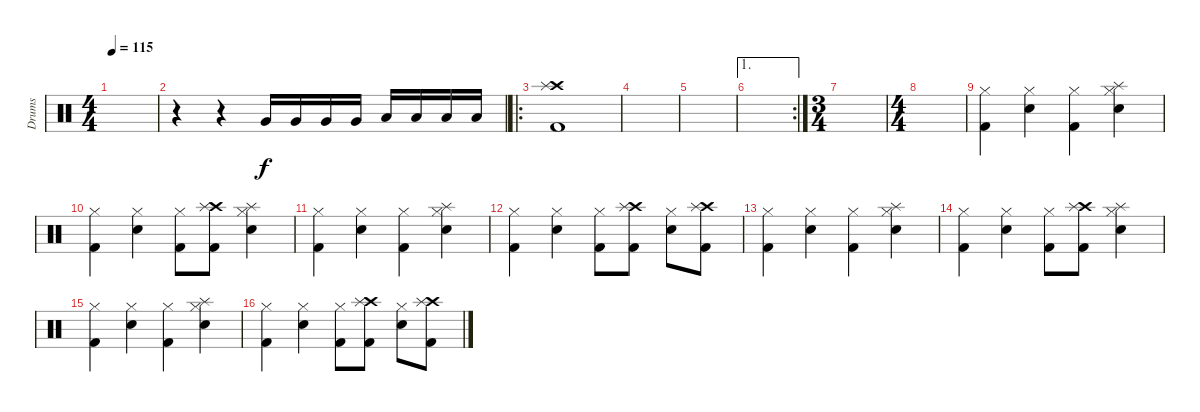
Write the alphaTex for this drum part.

\track ("Drums" "Drums") {instrument percussion}
\staff {score}
\articulation defaults
\ts (4 4)
\tempo 115
\clef neutral
\ks c
|
r.4 r.4 "Very Low Tom (hit)".16 "Very Low Tom (hit)".16 "Very Low Tom (hit)".16 "Very Low Tom (hit)".16 "Low Floor Tom (hit)".16 "Low Floor Tom (hit)".16 "Low Floor Tom (hit)".16 "Low Floor Tom (hit)".16 |
\ro
("Crash high (hit)" "Splash (hit)" "Kick (hit) 2").1 |
|
|
\ae 1
\rc 2
|
\ts (3 4)
|
\ts (4 4)
|
("Hi-Hat (closed)" "Kick (hit) 2").4 ("Hi-Hat (closed)" "Snare (hit) 2").4 ("Hi-Hat (closed)" "Kick (hit) 2").4 ("Hi-Hat (closed)" "Snare (hit) 2" "Splash (hit)").4 |
("Hi-Hat (closed)" "Kick (hit) 2").4 ("Hi-Hat (closed)" "Snare (hit) 2").4 ("Hi-Hat (closed)" "Kick (hit) 2").8 ("Crash high (hit)" "Splash (hit)" "Kick (hit) 2").8 ("Hi-Hat (closed)" "Snare (hit) 2" "Splash (hit)").4 |
("Hi-Hat (closed)" "Kick (hit) 2").4 ("Hi-Hat (closed)" "Snare (hit) 2").4 ("Hi-Hat (closed)" "Kick (hit) 2").4 ("Hi-Hat (closed)" "Snare (hit) 2" "Splash (hit)").4 |
("Hi-Hat (closed)" "Kick (hit) 2").4 ("Hi-Hat (closed)" "Snare (hit) 2").4 ("Hi-Hat (closed)" "Kick (hit) 2").8 ("Crash high (hit)" "Splash (hit)" "Kick (hit) 2").8 ("Hi-Hat (closed)" "Snare (hit) 2").8 ("Crash high (hit)" "Splash (hit)" "Kick (hit) 2").8 |
("Hi-Hat (closed)" "Kick (hit) 2").4 ("Hi-Hat (closed)" "Snare (hit) 2").4 ("Hi-Hat (closed)" "Kick (hit) 2").4 ("Hi-Hat (closed)" "Snare (hit) 2" "Splash (hit)").4 |
("Hi-Hat (closed)" "Kick (hit) 2").4 ("Hi-Hat (closed)" "Snare (hit) 2").4 ("Hi-Hat (closed)" "Kick (hit) 2").8 ("Crash high (hit)" "Splash (hit)" "Kick (hit) 2").8 ("Hi-Hat (closed)" "Snare (hit) 2" "Splash (hit)").4 |
("Hi-Hat (closed)" "Kick (hit) 2").4 ("Hi-Hat (closed)" "Snare (hit) 2").4 ("Hi-Hat (closed)" "Kick (hit) 2").4 ("Hi-Hat (closed)" "Snare (hit) 2" "Splash (hit)").4 |
("Hi-Hat (closed)" "Kick (hit) 2").4 ("Hi-Hat (closed)" "Snare (hit) 2").4 ("Hi-Hat (closed)" "Kick (hit) 2").8 ("Crash high (hit)" "Splash (hit)" "Kick (hit) 2").8 ("Hi-Hat (closed)" "Snare (hit) 2").8 ("Crash high (hit)" "Splash (hit)" "Kick (hit) 2").8
